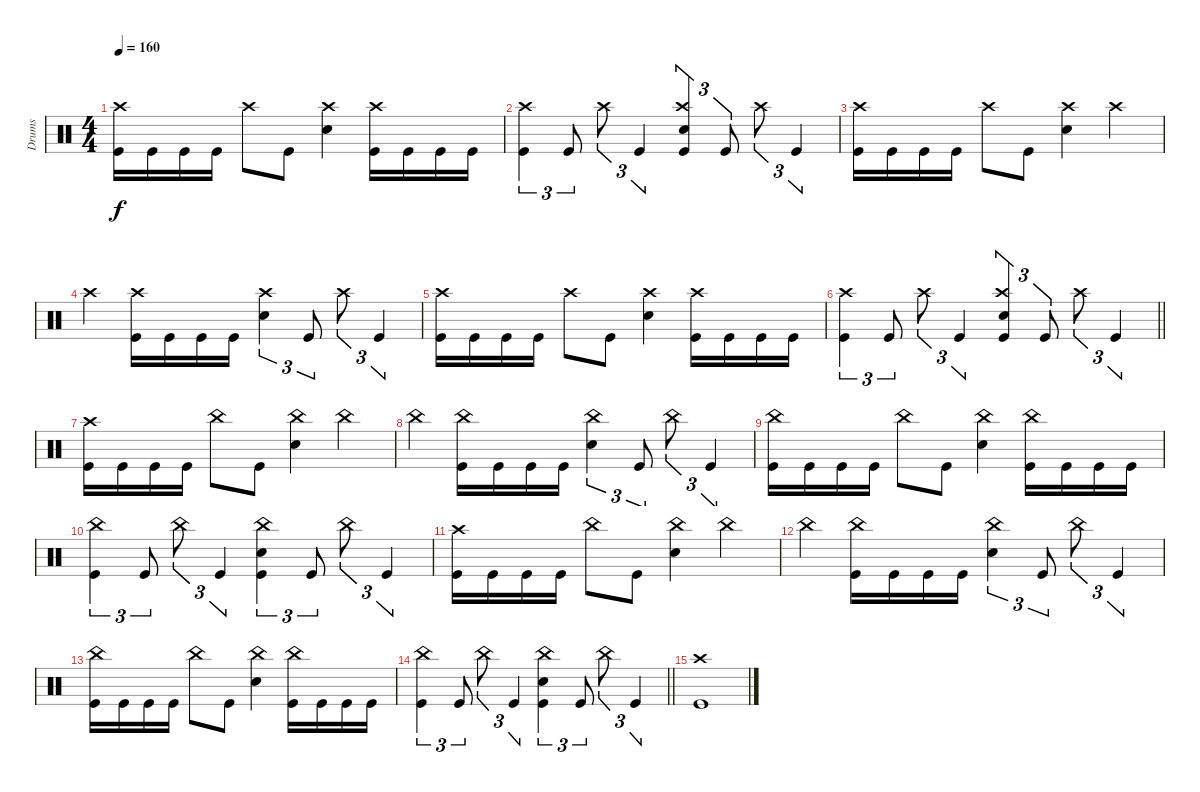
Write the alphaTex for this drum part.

\track ("Drums" "Drums") {instrument percussion}
\staff {score}
\articulation defaults
\ts (4 4)
\tempo 160
\clef neutral
\ks c
("Kick (hit)" "Crash high (hit)").16{dy f} "Kick (hit)".16 "Kick (hit)".16 "Kick (hit)".16 "Crash high (hit)".8 "Kick (hit)".8 ("Snare (hit) 2" "Crash high (hit)").4 ("Kick (hit)" "Crash high (hit)").16 "Kick (hit)".16 "Kick (hit)".16 "Kick (hit)".16 |
("Kick (hit)" "Crash high (hit)").4{tu (3 2)} "Kick (hit)".8{tu (3 2)} "Crash high (hit)".8{tu (3 2)} "Kick (hit)".4{tu (3 2)} ("Kick (hit)" "Snare (hit) 2" "Crash high (hit)").4{tu (3 2)} "Kick (hit)".8{tu (3 2)} "Crash high (hit)".8{tu (3 2)} "Kick (hit)".4{tu (3 2)} |
("Kick (hit)" "Crash high (hit)").16 "Kick (hit)".16 "Kick (hit)".16 "Kick (hit)".16 "Crash high (hit)".8 "Kick (hit)".8 ("Snare (hit) 2" "Crash high (hit)").4 "Crash high (hit)".4 |
"Crash high (hit)".4 ("Kick (hit)" "Crash high (hit)").16 "Kick (hit)".16 "Kick (hit)".16 "Kick (hit)".16 ("Snare (hit) 2" "Crash high (hit)").4{tu (3 2)} "Kick (hit)".8{tu (3 2)} "Crash high (hit)".8{tu (3 2)} "Kick (hit)".4{tu (3 2)} |
("Kick (hit)" "Crash high (hit)").16 "Kick (hit)".16 "Kick (hit)".16 "Kick (hit)".16 "Crash high (hit)".8 "Kick (hit)".8 ("Snare (hit) 2" "Crash high (hit)").4 ("Kick (hit)" "Crash high (hit)").16 "Kick (hit)".16 "Kick (hit)".16 "Kick (hit)".16 |
\barLineRight lightlight
("Kick (hit)" "Crash high (hit)").4{tu (3 2)} "Kick (hit)".8{tu (3 2)} "Crash high (hit)".8{tu (3 2)} "Kick (hit)".4{tu (3 2)} ("Kick (hit)" "Snare (hit) 2" "Crash high (hit)").4{tu (3 2)} "Kick (hit)".8{tu (3 2)} "Crash high (hit)".8{tu (3 2)} "Kick (hit)".4{tu (3 2)} |
\section ("" "")
("Kick (hit)" "Crash high (hit)").16 "Kick (hit)".16 "Kick (hit)".16 "Kick (hit)".16 "China (hit)".8 "Kick (hit)".8 ("Snare (hit) 2" "China (hit)").4 "China (hit)".4 |
"China (hit)".4 ("Kick (hit)" "China (hit)").16 "Kick (hit)".16 "Kick (hit)".16 "Kick (hit)".16 ("China (hit)" "Snare (hit) 2").4{tu (3 2)} "Kick (hit)".8{tu (3 2)} "China (hit)".8{tu (3 2)} "Kick (hit)".4{tu (3 2)} |
("Kick (hit)" "China (hit)").16 "Kick (hit)".16 "Kick (hit)".16 "Kick (hit)".16 "China (hit)".8 "Kick (hit)".8 ("Snare (hit) 2" "China (hit)").4 ("Kick (hit)" "China (hit)").16 "Kick (hit)".16 "Kick (hit)".16 "Kick (hit)".16 |
("Kick (hit)" "China (hit)").4{tu (3 2)} "Kick (hit)".8{tu (3 2)} "China (hit)".8{tu (3 2)} "Kick (hit)".4{tu (3 2)} ("Kick (hit)" "Snare (hit) 2" "China (hit)").4{tu (3 2)} "Kick (hit)".8{tu (3 2)} "China (hit)".8{tu (3 2)} "Kick (hit)".4{tu (3 2)} |
("Kick (hit)" "Crash high (hit)").16 "Kick (hit)".16 "Kick (hit)".16 "Kick (hit)".16 "China (hit)".8 "Kick (hit)".8 ("Snare (hit) 2" "China (hit)").4 "China (hit)".4 |
"China (hit)".4 ("Kick (hit)" "China (hit)").16 "Kick (hit)".16 "Kick (hit)".16 "Kick (hit)".16 ("China (hit)" "Snare (hit) 2").4{tu (3 2)} "Kick (hit)".8{tu (3 2)} "China (hit)".8{tu (3 2)} "Kick (hit)".4{tu (3 2)} |
("Kick (hit)" "China (hit)").16 "Kick (hit)".16 "Kick (hit)".16 "Kick (hit)".16 "China (hit)".8 "Kick (hit)".8 ("Snare (hit) 2" "China (hit)").4 ("Kick (hit)" "China (hit)").16 "Kick (hit)".16 "Kick (hit)".16 "Kick (hit)".16 |
\barLineRight lightlight
("Kick (hit)" "China (hit)").4{tu (3 2)} "Kick (hit)".8{tu (3 2)} "China (hit)".8{tu (3 2)} "Kick (hit)".4{tu (3 2)} ("Kick (hit)" "Snare (hit) 2" "China (hit)").4{tu (3 2)} "Kick (hit)".8{tu (3 2)} "China (hit)".8{tu (3 2)} "Kick (hit)".4{tu (3 2)} |
\section ("" "")
("Kick (hit)" "Crash high (hit)").1
